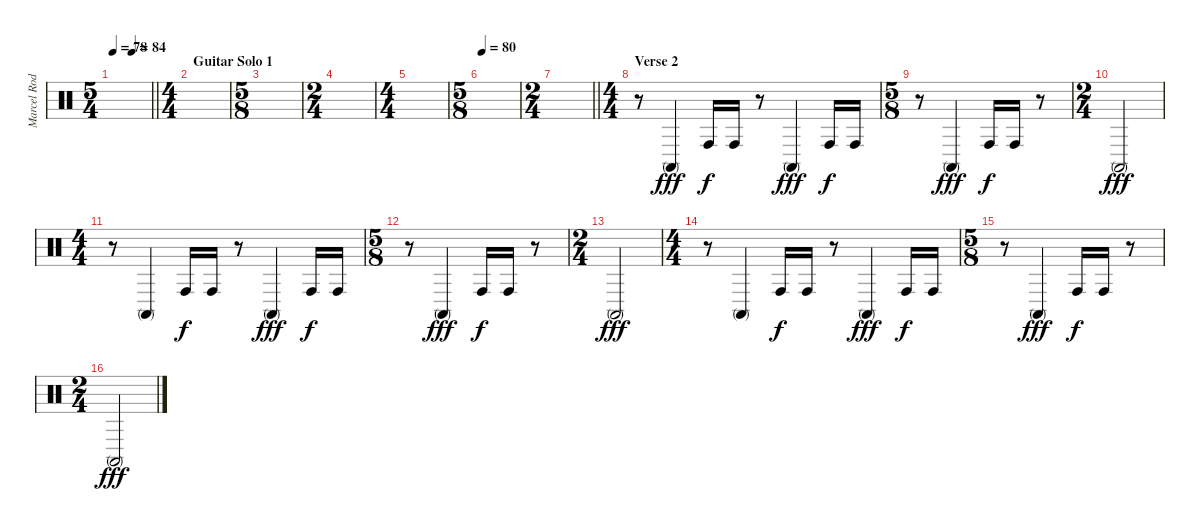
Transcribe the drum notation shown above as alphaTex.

\track ("Marcel Rodriguez-Lopez" "Marcel Rod") {instrument percussion}
\staff {score}
\articulation defaults
\ts (5 4)
\tempo 78
\tempo (84 0.5)
\clef neutral
\barLineRight lightlight
\ks c
|
\ts (4 4)
\section ("" "Guitar Solo 1")
|
\ts (5 8)
|
\ts (2 4)
|
\ts (4 4)
|
\ts (5 8)
\tempo 80
|
\ts (2 4)
\barLineRight lightlight
|
\ts (4 4)
\section ("" "Verse 2")
r.8 "Conga high (mute)".4{dy fff} "Conga high (hit)".16{dy f} "Conga high (hit)".16 r.8 "Conga high (mute)".4{dy fff} "Conga high (hit)".16{dy f} "Conga high (hit)".16 |
\ts (5 8)
r.8 "Conga high (mute)".4{dy fff} "Conga high (hit)".16{dy f} "Conga high (hit)".16 r.8 |
\ts (2 4)
"Conga high (mute)".2{dy fff} |
\ts (4 4)
r.8 "Conga high (mute)".4 "Conga high (hit)".16{dy f} "Conga high (hit)".16 r.8 "Conga high (mute)".4{dy fff} "Conga high (hit)".16{dy f} "Conga high (hit)".16 |
\ts (5 8)
r.8 "Conga high (mute)".4{dy fff} "Conga high (hit)".16{dy f} "Conga high (hit)".16 r.8 |
\ts (2 4)
"Conga high (mute)".2{dy fff} |
\ts (4 4)
r.8 "Conga high (mute)".4 "Conga high (hit)".16{dy f} "Conga high (hit)".16 r.8 "Conga high (mute)".4{dy fff} "Conga high (hit)".16{dy f} "Conga high (hit)".16 |
\ts (5 8)
r.8 "Conga high (mute)".4{dy fff} "Conga high (hit)".16{dy f} "Conga high (hit)".16 r.8 |
\ts (2 4)
"Conga high (mute)".2{dy fff}
